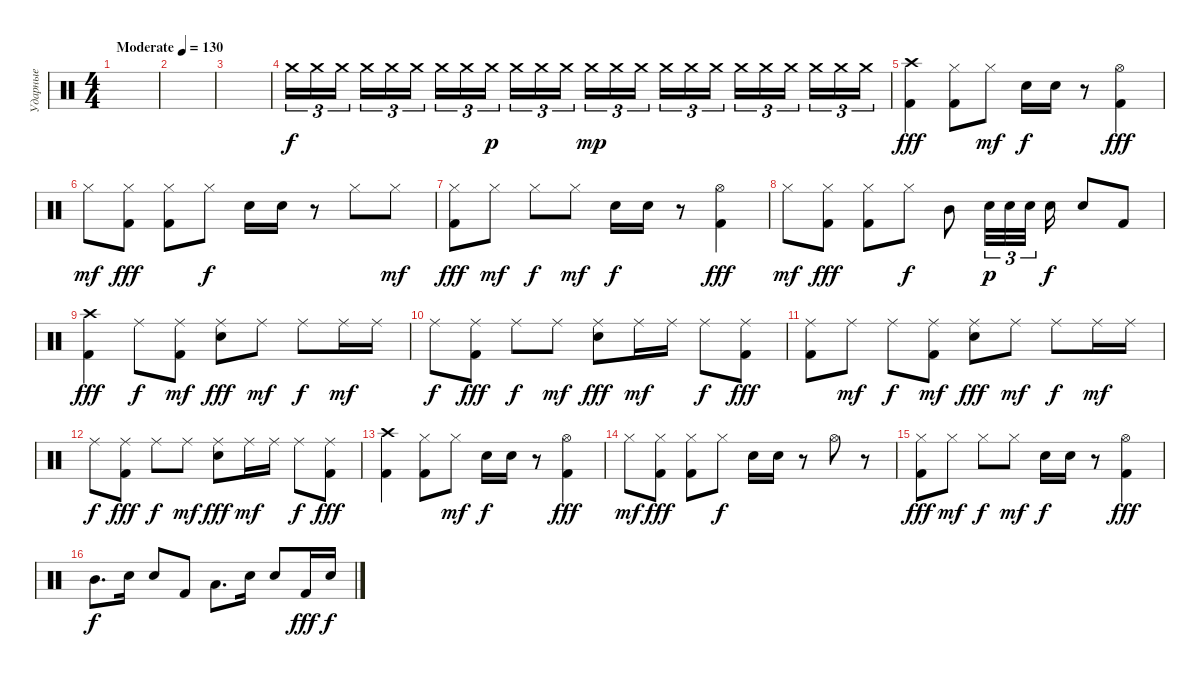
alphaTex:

\track ("Ударные" "Ударные") {instrument percussion}
\staff {score}
\articulation defaults
\ts (4 4)
\tempo (130 "Moderate")
\clef neutral
\ks c
|
|
|
"Crash medium (hit)".16{tu (3 2)} "Crash medium (hit)".16{tu (3 2)} "Crash medium (hit)".16{tu (3 2) beam splitsecondary} "Crash medium (hit)".16{tu (3 2)} "Crash medium (hit)".16{tu (3 2)} "Crash medium (hit)".16{tu (3 2)} "Crash medium (hit)".16{tu (3 2)} "Crash medium (hit)".16{tu (3 2)} "Crash medium (hit)".16{tu (3 2) dy p beam splitsecondary} "Crash medium (hit)".16{tu (3 2)} "Crash medium (hit)".16{tu (3 2)} "Crash medium (hit)".16{tu (3 2)} "Crash medium (hit)".16{tu (3 2) dy mp} "Crash medium (hit)".16{tu (3 2)} "Crash medium (hit)".16{tu (3 2) beam splitsecondary} "Crash medium (hit)".16{tu (3 2)} "Crash medium (hit)".16{tu (3 2)} "Crash medium (hit)".16{tu (3 2)} "Crash medium (hit)".16{tu (3 2)} "Crash medium (hit)".16{tu (3 2)} "Crash medium (hit)".16{tu (3 2) beam splitsecondary} "Crash medium (hit)".16{tu (3 2)} "Crash medium (hit)".16{tu (3 2)} "Crash medium (hit)".16{tu (3 2)} |
("Crash high (hit)" "Kick (hit) 2").4{dy fff} ("Hi-Hat (closed)" "Kick (hit) 2").8 "Hi-Hat (closed)".8{dy mf} "Electric Snare (hit)".16{dy f} "Electric Snare (hit)".16 r.8 ("Hi-Hat (open)" "Kick (hit) 2").4{dy fff} |
"Hi-Hat (closed)".8{dy mf} ("Hi-Hat (closed)" "Kick (hit) 2").8{dy fff} ("Hi-Hat (closed)" "Kick (hit) 2").8 "Hi-Hat (closed)".8{dy f} "Electric Snare (hit)".16 "Electric Snare (hit)".16 r.8 "Hi-Hat (closed)".8 "Hi-Hat (closed)".8{dy mf} |
("Hi-Hat (closed)" "Kick (hit) 2").8{dy fff} "Hi-Hat (closed)".8{dy mf} "Hi-Hat (closed)".8{dy f} "Hi-Hat (closed)".8{dy mf} "Electric Snare (hit)".16{dy f} "Electric Snare (hit)".16 r.8 ("Hi-Hat (open)" "Kick (hit) 2").4{dy fff} |
"Hi-Hat (closed)".8{dy mf} ("Hi-Hat (closed)" "Kick (hit) 2").8{dy fff} ("Hi-Hat (closed)" "Kick (hit) 2").8 "Hi-Hat (closed)".8{dy f} "Mid Tom (hit)".8 "Electric Snare (hit)".32{tu (3 2) dy p} "Electric Snare (hit)".32{tu (3 2)} "Electric Snare (hit)".32{tu (3 2) beam splitsecondary} "Electric Snare (hit)".16{dy f} "Electric Snare (hit)".8 "Kick (hit) 2".8 |
("Crash high (hit)" "Kick (hit) 2").4{dy fff} "Ride (middle)".8{dy f} ("Ride (middle)" "Kick (hit) 2").8{dy mf} ("Ride (middle)" "Electric Snare (hit)").8{dy fff} "Ride (middle)".8{dy mf} "Ride (middle)".8{dy f} "Ride (middle)".16{dy mf} "Ride (middle)".16 |
"Ride (middle)".8{dy f} ("Ride (middle)" "Kick (hit) 2").8{dy fff} "Ride (middle)".8{dy f} "Ride (middle)".8{dy mf} ("Ride (middle)" "Electric Snare (hit)").8{dy fff} "Ride (middle)".16{dy mf} "Ride (middle)".16 "Ride (middle)".8{dy f} ("Ride (middle)" "Kick (hit) 2").8{dy fff} |
("Ride (middle)" "Kick (hit) 2").8 "Ride (middle)".8{dy mf} "Ride (middle)".8{dy f} ("Ride (middle)" "Kick (hit) 2").8{dy mf} ("Ride (middle)" "Electric Snare (hit)").8{dy fff} "Ride (middle)".8{dy mf} "Ride (middle)".8{dy f} "Ride (middle)".16{dy mf} "Ride (middle)".16 |
"Ride (middle)".8{dy f} ("Ride (middle)" "Kick (hit) 2").8{dy fff} "Ride (middle)".8{dy f} "Ride (middle)".8{dy mf} ("Ride (middle)" "Electric Snare (hit)").8{dy fff} "Ride (middle)".16{dy mf} "Ride (middle)".16 "Ride (middle)".8{dy f} ("Ride (middle)" "Kick (hit) 2").8{dy fff} |
("Crash high (hit)" "Kick (hit) 2").4 ("Hi-Hat (closed)" "Kick (hit) 2").8 "Hi-Hat (closed)".8{dy mf} "Electric Snare (hit)".16{dy f} "Electric Snare (hit)".16 r.8 ("Hi-Hat (open)" "Kick (hit) 2").4{dy fff} |
"Hi-Hat (closed)".8{dy mf} ("Hi-Hat (closed)" "Kick (hit) 2").8{dy fff} ("Hi-Hat (closed)" "Kick (hit) 2").8 "Hi-Hat (closed)".8{dy f} "Electric Snare (hit)".16 "Electric Snare (hit)".16 r.8 "Hi-Hat (open)".8 r.8 |
("Hi-Hat (closed)" "Kick (hit) 2").8{dy fff} "Hi-Hat (closed)".8{dy mf} "Hi-Hat (closed)".8{dy f} "Hi-Hat (closed)".8{dy mf} "Electric Snare (hit)".16{dy f} "Electric Snare (hit)".16 r.8 ("Hi-Hat (open)" "Kick (hit) 2").4{dy fff} |
"Mid Tom (hit)".8{d dy f} "Electric Snare (hit)".16 "Electric Snare (hit)".8 "Kick (hit) 2".8 "Low Floor Tom (hit)".8{d} "Electric Snare (hit)".16 "Electric Snare (hit)".8 "Kick (hit) 2".16{dy fff} "Electric Snare (hit)".16{dy f}
